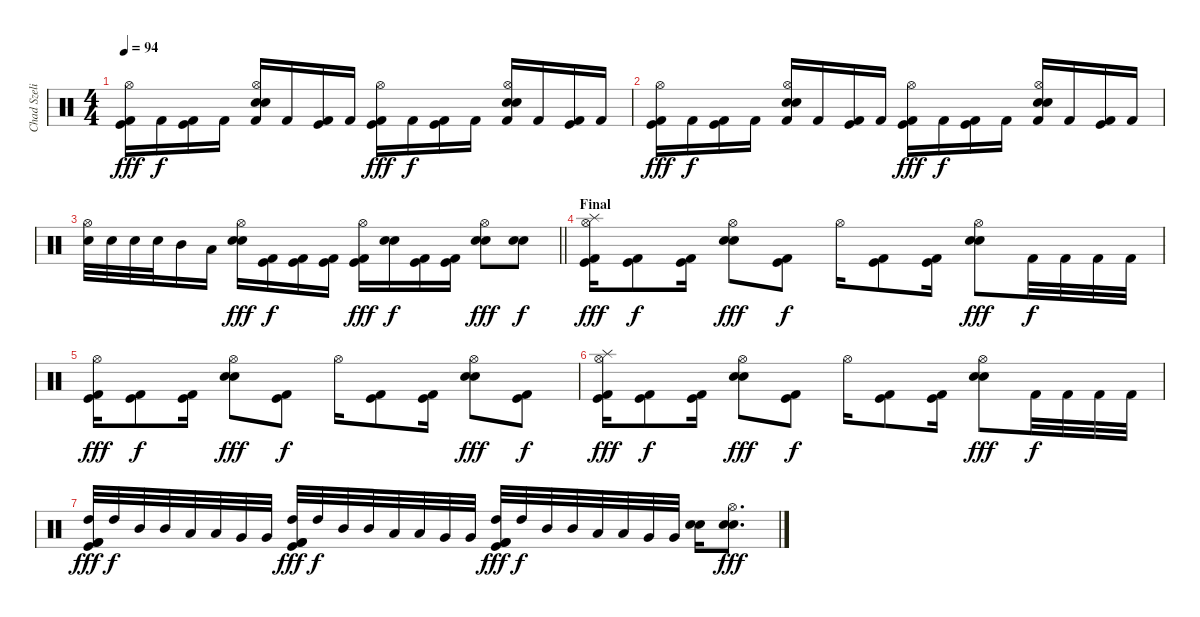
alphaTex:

\track ("Chad Szeliga" "Chad Szeli") {instrument percussion}
\staff {score}
\articulation defaults
\ts (4 4)
\tempo 94
\clef neutral
\ks c
("Kick (hit) 2" "Kick (hit)" "Hi-Hat (open)").16{dy fff} "Kick (hit) 2".16{dy f} ("Kick (hit) 2" "Kick (hit)").16 "Kick (hit) 2".16 ("Kick (hit) 2" "Snare (hit) 2" "Snare (hit) 2" "Hi-Hat (open)").16 "Kick (hit) 2".16 ("Kick (hit) 2" "Kick (hit)").16 "Kick (hit) 2".16 ("Kick (hit) 2" "Kick (hit)" "Hi-Hat (open)").16{dy fff} "Kick (hit) 2".16{dy f} ("Kick (hit) 2" "Kick (hit)").16 "Kick (hit) 2".16 ("Kick (hit) 2" "Snare (hit) 2" "Snare (hit) 2" "Hi-Hat (open)").16 "Kick (hit) 2".16 ("Kick (hit) 2" "Kick (hit)").16 "Kick (hit) 2".16 |
("Kick (hit) 2" "Kick (hit)" "Hi-Hat (open)").16{dy fff} "Kick (hit) 2".16{dy f} ("Kick (hit) 2" "Kick (hit)").16 "Kick (hit) 2".16 ("Kick (hit) 2" "Snare (hit) 2" "Snare (hit) 2" "Hi-Hat (open)").16 "Kick (hit) 2".16 ("Kick (hit) 2" "Kick (hit)").16 "Kick (hit) 2".16 ("Kick (hit) 2" "Kick (hit)" "Hi-Hat (open)").16{dy fff} "Kick (hit) 2".16{dy f} ("Kick (hit) 2" "Kick (hit)").16 "Kick (hit) 2".16 ("Kick (hit) 2" "Snare (hit) 2" "Snare (hit) 2" "Hi-Hat (open)").16 "Kick (hit) 2".16 ("Kick (hit) 2" "Kick (hit)").16 "Kick (hit) 2".16 |
\barLineRight lightlight
("Snare (hit) 2" "Hi-Hat (open)").32 "Snare (hit) 2".32 "Snare (hit) 2".32 "Snare (hit) 2".32 "Mid Tom (hit)".16 "Low Tom (hit)".16 ("Snare (hit) 2" "Snare (hit) 2" "Hi-Hat (open)").16{dy fff} ("Kick (hit) 2" "Kick (hit)").16{dy f} ("Kick (hit) 2" "Kick (hit)").16 ("Kick (hit) 2" "Kick (hit)").16 ("Kick (hit) 2" "Kick (hit)" "Hi-Hat (open)").16{dy fff} ("Snare (hit) 2" "Snare (hit) 2").16{dy f} ("Kick (hit) 2" "Kick (hit)").16 ("Kick (hit) 2" "Kick (hit)").16 ("Snare (hit) 2" "Snare (hit) 2" "Hi-Hat (open)").8{dy fff} ("Snare (hit) 2" "Snare (hit) 2").8{dy f} |
\section ("" "Final")
("Splash (hit)" "Kick (hit) 2" "Kick (hit)" "Hi-Hat (open)").16{dy fff} ("Kick (hit) 2" "Kick (hit)").8{dy f} ("Kick (hit) 2" "Kick (hit)").16 ("Snare (hit) 2" "Snare (hit) 2" "Hi-Hat (open)").8{dy fff} ("Kick (hit) 2" "Kick (hit)").8{dy f} "Hi-Hat (open)".16 ("Kick (hit) 2" "Kick (hit)").8 ("Kick (hit) 2" "Kick (hit)").16 ("Snare (hit) 2" "Snare (hit) 2" "Hi-Hat (open)").8{dy fff} "Kick (hit) 2".32{dy f} "Kick (hit) 2".32 "Kick (hit) 2".32 "Kick (hit) 2".32 |
("Kick (hit) 2" "Kick (hit)" "Hi-Hat (open)").16{dy fff} ("Kick (hit) 2" "Kick (hit)").8{dy f} ("Kick (hit) 2" "Kick (hit)").16 ("Snare (hit) 2" "Snare (hit) 2" "Hi-Hat (open)").8{dy fff} ("Kick (hit) 2" "Kick (hit)").8{dy f} "Hi-Hat (open)".16 ("Kick (hit) 2" "Kick (hit)").8 ("Kick (hit) 2" "Kick (hit)").16 ("Snare (hit) 2" "Snare (hit) 2" "Hi-Hat (open)").8{dy fff} ("Kick (hit) 2" "Kick (hit)").8{dy f} |
("Splash (hit)" "Kick (hit) 2" "Kick (hit)" "Hi-Hat (open)").16{dy fff} ("Kick (hit) 2" "Kick (hit)").8{dy f} ("Kick (hit) 2" "Kick (hit)").16 ("Snare (hit) 2" "Snare (hit) 2" "Hi-Hat (open)").8{dy fff} ("Kick (hit) 2" "Kick (hit)").8{dy f} "Hi-Hat (open)".16 ("Kick (hit) 2" "Kick (hit)").8 ("Kick (hit) 2" "Kick (hit)").16 ("Snare (hit) 2" "Snare (hit) 2" "Hi-Hat (open)").8{dy fff} "Kick (hit) 2".32{dy f} "Kick (hit) 2".32 "Kick (hit) 2".32 "Kick (hit) 2".32 |
("Kick (hit) 2" "Kick (hit)" "High Tom (hit)" "Kick (hit) 2").32{dy fff} "High Tom (hit)".32{dy f} "Mid Tom (hit)".32 "Mid Tom (hit)".32 "Low Tom (hit)".32 "Low Tom (hit)".32 "Very Low Tom (hit)".32 "Very Low Tom (hit)".32 ("Kick (hit) 2" "Kick (hit)" "High Tom (hit)" "Kick (hit) 2").32{dy fff} "High Tom (hit)".32{dy f} "Mid Tom (hit)".32 "Mid Tom (hit)".32 "Low Tom (hit)".32 "Low Tom (hit)".32 "Very Low Tom (hit)".32 "Very Low Tom (hit)".32 ("Kick (hit) 2" "Kick (hit)" "High Tom (hit)" "Kick (hit) 2").32{dy fff} "High Tom (hit)".32{dy f} "Mid Tom (hit)".32 "Mid Tom (hit)".32 "Low Tom (hit)".32 "Low Tom (hit)".32 "Very Low Tom (hit)".32 "Very Low Tom (hit)".32 ("Snare (hit) 2" "Snare (hit) 2").16 ("Snare (hit) 2" "Snare (hit) 2" "Hi-Hat (open)").8{d dy fff}
